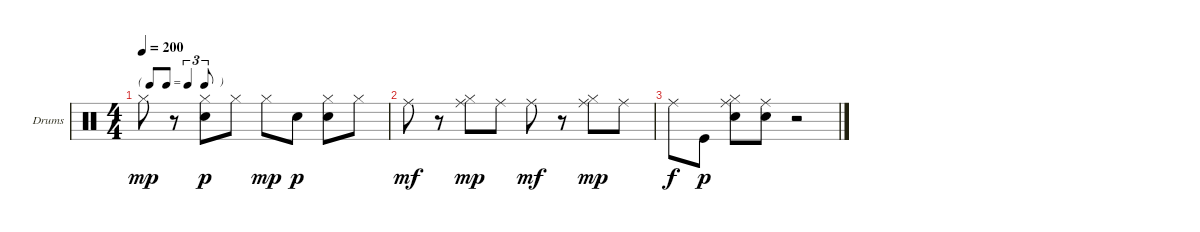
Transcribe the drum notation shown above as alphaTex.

\bracketExtendMode groupsimilarinstruments
\firstSystemTrackNameOrientation horizontal
\otherSystemsTrackNameOrientation horizontal
\track ("Drumkit" "Drums") {instrument percussion}
\staff {score}
\articulation defaults
\ts (4 4)
\tf triplet8th
\tempo 200
\clef neutral
\ks c "Hi-Hat (closed)".8{dy mp}
r.8 ("Snare (hit) 2" "Hi-Hat (closed)").8{dy p} "Hi-Hat (closed)".8 "Hi-Hat (closed)".8{dy mp} "Snare (hit) 2".8{dy p} ("Snare (hit) 2" "Hi-Hat (closed)").8 "Hi-Hat (closed)".8 |
"Ride (middle)".8{dy mf} r.8 ("Hi-Hat (closed)" "Ride (middle)").8{dy mp} "Ride (middle)".8 "Ride (middle)".8{dy mf} r.8 ("Hi-Hat (closed)" "Ride (middle)").8{dy mp} "Ride (middle)".8 |
"Ride (middle)".8{dy f} "Kick (hit)".8{dy p} ("Snare (hit) 2" "Hi-Hat (closed)" "Ride (middle)").8 ("Snare (hit) 2" "Ride (middle)").8 r.2
